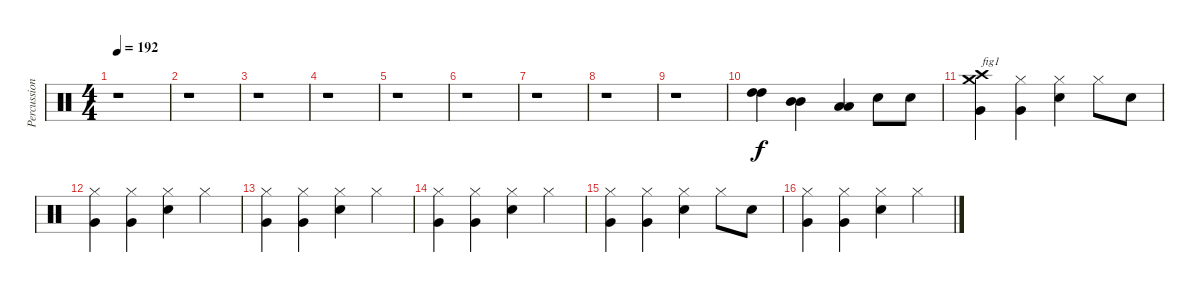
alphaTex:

\track ("Percussions" "Percussion") {instrument percussion}
\staff {score}
\articulation defaults
\ts (4 4)
\tempo 192
\clef neutral
\ks c
r.1{dy f} |
r.1 |
r.1 |
r.1 |
r.1 |
r.1 |
r.1 |
r.1 |
r.1 |
("High Tom (hit)" "High Tom (hit)").4 ("Mid Tom (hit)" "Mid Tom (hit)").4 ("Low Tom (hit)" "Low Tom (hit)").4 "Snare (hit) 2".8 "Snare (hit) 2".8 |
("Very Low Tom (hit)" "Crash high (hit)" "Crash medium (hit)").4{txt "fig1"} ("Very Low Tom (hit)" "Hi-Hat (closed)").4 ("Snare (hit) 2" "Hi-Hat (closed)").4 "Hi-Hat (closed)".8 "Snare (hit) 2".8 |
("Very Low Tom (hit)" "Hi-Hat (closed)").4 ("Very Low Tom (hit)" "Hi-Hat (closed)").4 ("Snare (hit) 2" "Hi-Hat (closed)").4 "Hi-Hat (closed)".4 |
("Very Low Tom (hit)" "Hi-Hat (closed)").4 ("Very Low Tom (hit)" "Hi-Hat (closed)").4 ("Snare (hit) 2" "Hi-Hat (closed)").4 "Hi-Hat (closed)".4 |
("Very Low Tom (hit)" "Hi-Hat (closed)").4 ("Very Low Tom (hit)" "Hi-Hat (closed)").4 ("Snare (hit) 2" "Hi-Hat (closed)").4 "Hi-Hat (closed)".4 |
("Very Low Tom (hit)" "Hi-Hat (closed)").4 ("Very Low Tom (hit)" "Hi-Hat (closed)").4 ("Snare (hit) 2" "Hi-Hat (closed)").4 "Hi-Hat (closed)".8 "Snare (hit) 2".8 |
("Very Low Tom (hit)" "Hi-Hat (closed)").4 ("Very Low Tom (hit)" "Hi-Hat (closed)").4 ("Snare (hit) 2" "Hi-Hat (closed)").4 "Hi-Hat (closed)".4
